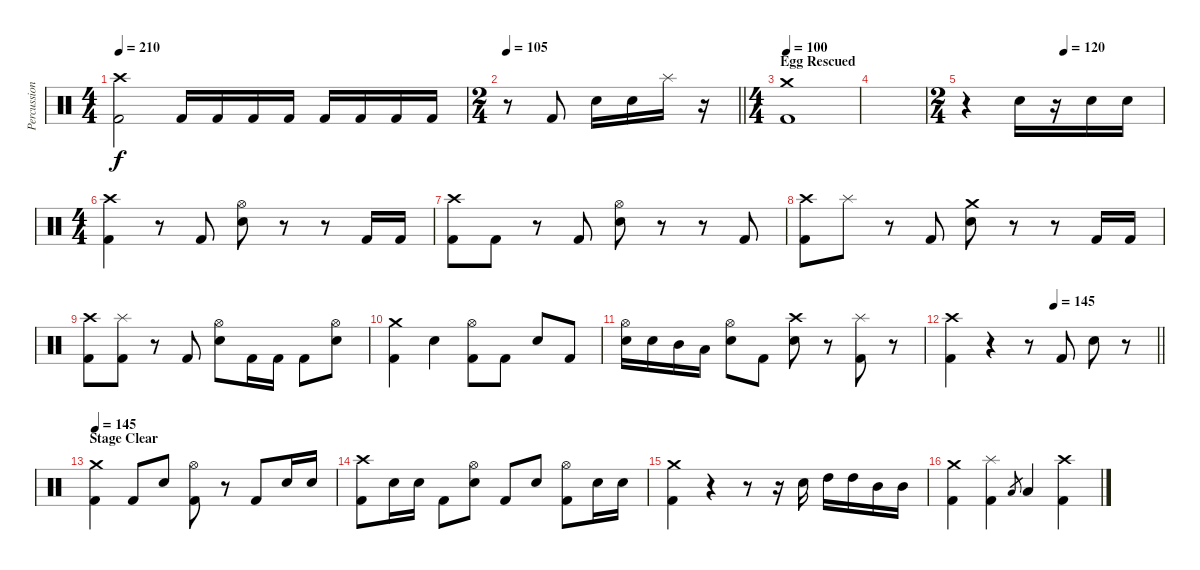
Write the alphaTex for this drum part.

\track ("Percussion" "Percussion") {instrument percussion}
\staff {score}
\articulation defaults
\ts (4 4)
\tempo 210
\clef neutral
\ks c
("Crash high (hit)" "Kick (hit) 2").2{dy f} "Kick (hit) 2".16 "Kick (hit) 2".16 "Kick (hit) 2".16 "Kick (hit) 2".16 "Kick (hit) 2".16 "Kick (hit) 2".16 "Kick (hit) 2".16 "Kick (hit) 2".16 |
\ts (2 4)
\tempo 105
\barLineRight lightlight
r.8 "Kick (hit) 2".8 "Electric Snare (hit)".16 "Electric Snare (hit)".16 "Splash (hit)".16 r.16 |
\ts (4 4)
\section ("" "Egg Rescued")
\tempo 100
("Crash medium (hit)" "Kick (hit) 2").1 |
|
\ts (2 4)
\tempo (120 0.5)
r.4 "Electric Snare (hit)".16 r.16 "Electric Snare (hit)".16 "Electric Snare (hit)".16 |
\ts (4 4)
("Crash high (hit)" "Kick (hit) 2").4 r.8 "Kick (hit) 2".8 ("Hi-Hat (open)" "Electric Snare (hit)").8 r.8 r.8 "Kick (hit) 2".16 "Kick (hit) 2".16 |
("Crash high (hit)" "Kick (hit) 2").8 "Kick (hit) 2".8 r.8 "Kick (hit) 2".8 ("Hi-Hat (open)" "Electric Snare (hit)").8 r.8 r.8 "Kick (hit) 2".8 |
("Crash high (hit)" "Kick (hit) 2").8 "Splash (hit)".8 r.8 "Kick (hit) 2".8 ("Crash medium (hit)" "Electric Snare (hit)").8 r.8 r.8 "Kick (hit) 2".16 "Kick (hit) 2".16 |
("Crash high (hit)" "Kick (hit) 2").8 ("Splash (hit)" "Kick (hit) 2").8 r.8 "Kick (hit) 2".8 ("Hi-Hat (open)" "Electric Snare (hit)").8 "Kick (hit) 2".16 "Kick (hit) 2".16 "Kick (hit) 2".8 ("Hi-Hat (open)" "Electric Snare (hit)").8 |
("Crash medium (hit)" "Kick (hit) 2").4 "Electric Snare (hit)".4 ("Hi-Hat (open)" "Kick (hit) 2").8 "Kick (hit) 2".8 "Electric Snare (hit)".8 "Kick (hit) 2".8 |
("Hi-Hat (open)" "Electric Snare (hit)").16 "Electric Snare (hit)".16 "Mid Tom (hit)".16 "Low Tom (hit)".16 ("Hi-Hat (open)" "Electric Snare (hit)").8 "Kick (hit) 2".8 ("Crash high (hit)" "Electric Snare (hit)").8 r.8 ("Splash (hit)" "Kick (hit) 2").8 r.8 |
\tempo (145 0.5)
\barLineRight lightlight
("Crash high (hit)" "Kick (hit) 2").4 r.4 r.8 "Kick (hit) 2".8 "Electric Snare (hit)".8 r.8 |
\section ("" "Stage Clear")
\tempo 145
("Crash medium (hit)" "Kick (hit) 2").4 "Kick (hit) 2".8 "Electric Snare (hit)".8 ("Hi-Hat (open)" "Kick (hit) 2").8 r.8 "Kick (hit) 2".8 "Electric Snare (hit)".16 "Electric Snare (hit)".16 |
("Crash high (hit)" "Kick (hit) 2").8 "Electric Snare (hit)".16 "Electric Snare (hit)".16 "Kick (hit) 2".8 ("Hi-Hat (open)" "Electric Snare (hit)").8 "Kick (hit) 2".8 "Electric Snare (hit)".8 ("Hi-Hat (open)" "Kick (hit) 2").8 "Electric Snare (hit)".16 "Electric Snare (hit)".16 |
("Crash medium (hit)" "Kick (hit) 2").4 r.4 r.8 r.16 "Electric Snare (hit)".16 "High Tom (hit)".16 "High Tom (hit)".16 "Mid Tom (hit)".16 "Mid Tom (hit)".16 |
("Crash medium (hit)" "Kick (hit) 2").4 ("Splash (hit)" "Kick (hit) 2").4 "Low Floor Tom (hit)".8{gr} "Low Floor Tom (hit)".4 ("Crash high (hit)" "Kick (hit) 2").4
